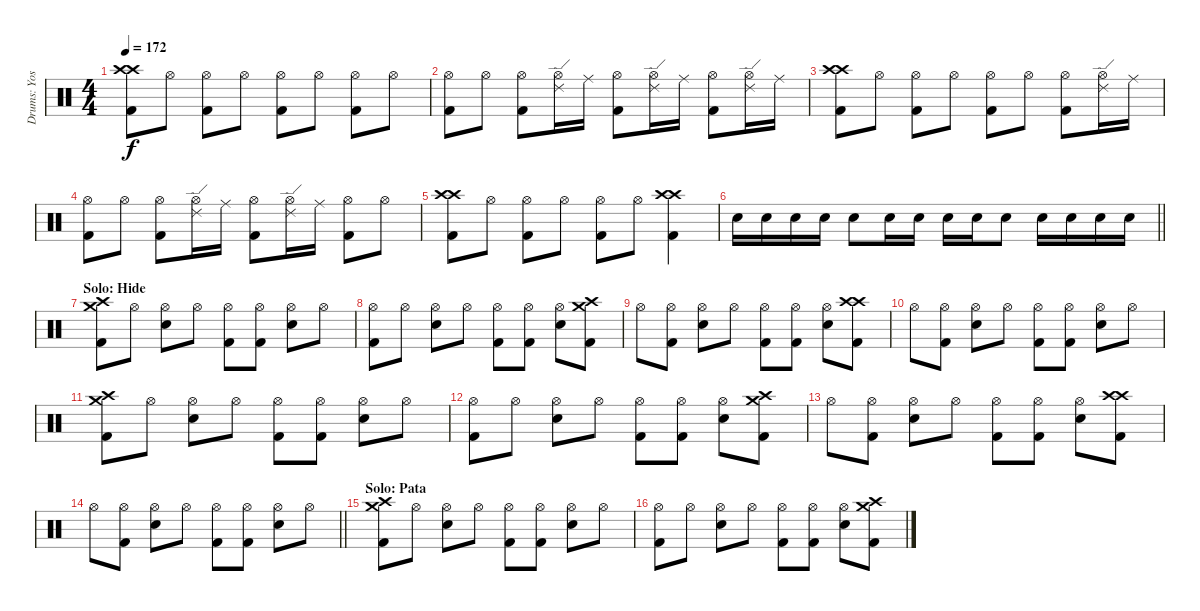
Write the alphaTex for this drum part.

\track ("Drums: Yoshiki" "Drums: Yos") {instrument percussion}
\staff {score}
\articulation defaults
\ts (4 4)
\tempo 172
\clef neutral
\ks c
("Crash high (hit)" "Crash high (hit)" "Kick (hit) 2").8{dy f} "Hi-Hat (open)".8 ("Hi-Hat (open)" "Kick (hit) 2").8 "Hi-Hat (open)".8 ("Hi-Hat (open)" "Kick (hit) 2").8 "Hi-Hat (open)".8 ("Hi-Hat (open)" "Kick (hit) 2").8 "Hi-Hat (open)".8 |
("Hi-Hat (open)" "Kick (hit) 2").8 "Hi-Hat (open)".8 ("Hi-Hat (open)" "Kick (hit) 2").8 ("Hi-Hat (open)" "Ride (edge) 2").16 "Ride (middle)".16 ("Hi-Hat (open)" "Kick (hit) 2").8 ("Hi-Hat (open)" "Ride (edge) 2").16 "Ride (middle)".16 ("Hi-Hat (open)" "Kick (hit) 2").8 ("Hi-Hat (open)" "Ride (edge) 2").16 "Ride (middle)".16 |
("Crash high (hit)" "Crash high (hit)" "Kick (hit) 2").8 "Hi-Hat (open)".8 ("Hi-Hat (open)" "Kick (hit) 2").8 "Hi-Hat (open)".8 ("Hi-Hat (open)" "Kick (hit) 2").8 "Hi-Hat (open)".8 ("Hi-Hat (open)" "Kick (hit) 2").8 ("Hi-Hat (open)" "Ride (edge) 2").16 "Ride (middle)".16 |
("Hi-Hat (open)" "Kick (hit) 2").8 "Hi-Hat (open)".8 ("Hi-Hat (open)" "Kick (hit) 2").8 ("Hi-Hat (open)" "Ride (edge) 2").16 "Ride (middle)".16 ("Hi-Hat (open)" "Kick (hit) 2").8 ("Hi-Hat (open)" "Ride (edge) 2").16 "Ride (middle)".16 ("Hi-Hat (open)" "Kick (hit) 2").8 "Hi-Hat (open)".8 |
("Crash high (hit)" "Crash high (hit)" "Kick (hit) 2").8 "Hi-Hat (open)".8 ("Hi-Hat (open)" "Kick (hit) 2").8 "Hi-Hat (open)".8 ("Hi-Hat (open)" "Kick (hit) 2").8 "Hi-Hat (open)".8 ("Crash high (hit)" "Crash high (hit)" "Kick (hit) 2").4 |
\barLineRight lightlight "Snare (hit) 2".16 "Snare (hit) 2".16 "Snare (hit) 2".16 "Snare (hit) 2".16 "Snare (hit) 2".8 "Snare (hit) 2".16 "Snare (hit) 2".16 "Snare (hit) 2".16 "Snare (hit) 2".16 "Snare (hit) 2".8 "Snare (hit) 2".16 "Snare (hit) 2".16 "Snare (hit) 2".16 "Snare (hit) 2".16
|
\section ("" "Solo: Hide")
("Crash high (hit)" "Crash medium (hit)" "Kick (hit) 2").8 "Hi-Hat (open)".8 ("Hi-Hat (open)" "Snare (hit) 2").8 "Hi-Hat (open)".8 ("Hi-Hat (open)" "Kick (hit) 2").8 ("Hi-Hat (open)" "Kick (hit) 2").8 ("Hi-Hat (open)" "Snare (hit) 2").8 "Hi-Hat (open)".8 |
("Hi-Hat (open)" "Kick (hit) 2").8 "Hi-Hat (open)".8 ("Hi-Hat (open)" "Snare (hit) 2").8 "Hi-Hat (open)".8 ("Hi-Hat (open)" "Kick (hit) 2").8 ("Hi-Hat (open)" "Kick (hit) 2").8 ("Hi-Hat (open)" "Snare (hit) 2").8 ("Crash high (hit)" "Crash medium (hit)" "Kick (hit) 2").8 |
"Hi-Hat (open)".8 ("Hi-Hat (open)" "Kick (hit) 2").8 ("Hi-Hat (open)" "Snare (hit) 2").8 "Hi-Hat (open)".8 ("Hi-Hat (open)" "Kick (hit) 2").8 ("Hi-Hat (open)" "Kick (hit) 2").8 ("Hi-Hat (open)" "Snare (hit) 2").8 ("Crash high (hit)" "Crash high (hit)" "Kick (hit) 2").8 |
"Hi-Hat (open)".8 ("Hi-Hat (open)" "Kick (hit) 2").8 ("Hi-Hat (open)" "Snare (hit) 2").8 "Hi-Hat (open)".8 ("Hi-Hat (open)" "Kick (hit) 2").8 ("Hi-Hat (open)" "Kick (hit) 2").8 ("Hi-Hat (open)" "Snare (hit) 2").8 "Hi-Hat (open)".8 |
("Crash high (hit)" "Crash medium (hit)" "Kick (hit) 2").8 "Hi-Hat (open)".8 ("Hi-Hat (open)" "Snare (hit) 2").8 "Hi-Hat (open)".8 ("Hi-Hat (open)" "Kick (hit) 2").8 ("Hi-Hat (open)" "Kick (hit) 2").8 ("Hi-Hat (open)" "Snare (hit) 2").8 "Hi-Hat (open)".8 |
("Hi-Hat (open)" "Kick (hit) 2").8 "Hi-Hat (open)".8 ("Hi-Hat (open)" "Snare (hit) 2").8 "Hi-Hat (open)".8 ("Hi-Hat (open)" "Kick (hit) 2").8 ("Hi-Hat (open)" "Kick (hit) 2").8 ("Hi-Hat (open)" "Snare (hit) 2").8 ("Crash high (hit)" "Crash medium (hit)" "Kick (hit) 2").8 |
"Hi-Hat (open)".8 ("Hi-Hat (open)" "Kick (hit) 2").8 ("Hi-Hat (open)" "Snare (hit) 2").8 "Hi-Hat (open)".8 ("Hi-Hat (open)" "Kick (hit) 2").8 ("Hi-Hat (open)" "Kick (hit) 2").8 ("Hi-Hat (open)" "Snare (hit) 2").8 ("Crash high (hit)" "Crash high (hit)" "Kick (hit) 2").8 |
\barLineRight lightlight "Hi-Hat (open)".8
("Hi-Hat (open)" "Kick (hit) 2").8 ("Hi-Hat (open)" "Snare (hit) 2").8 "Hi-Hat (open)".8 ("Hi-Hat (open)" "Kick (hit) 2").8 ("Hi-Hat (open)" "Kick (hit) 2").8 ("Hi-Hat (open)" "Snare (hit) 2").8 "Hi-Hat (open)".8 |
\section ("" "Solo: Pata")
("Crash high (hit)" "Crash medium (hit)" "Kick (hit) 2").8 "Hi-Hat (open)".8 ("Hi-Hat (open)" "Snare (hit) 2").8 "Hi-Hat (open)".8 ("Hi-Hat (open)" "Kick (hit) 2").8 ("Hi-Hat (open)" "Kick (hit) 2").8 ("Hi-Hat (open)" "Snare (hit) 2").8 "Hi-Hat (open)".8 |
("Hi-Hat (open)" "Kick (hit) 2").8 "Hi-Hat (open)".8 ("Hi-Hat (open)" "Snare (hit) 2").8 "Hi-Hat (open)".8 ("Hi-Hat (open)" "Kick (hit) 2").8 ("Hi-Hat (open)" "Kick (hit) 2").8 ("Hi-Hat (open)" "Snare (hit) 2").8 ("Crash high (hit)" "Crash medium (hit)" "Kick (hit) 2").8
